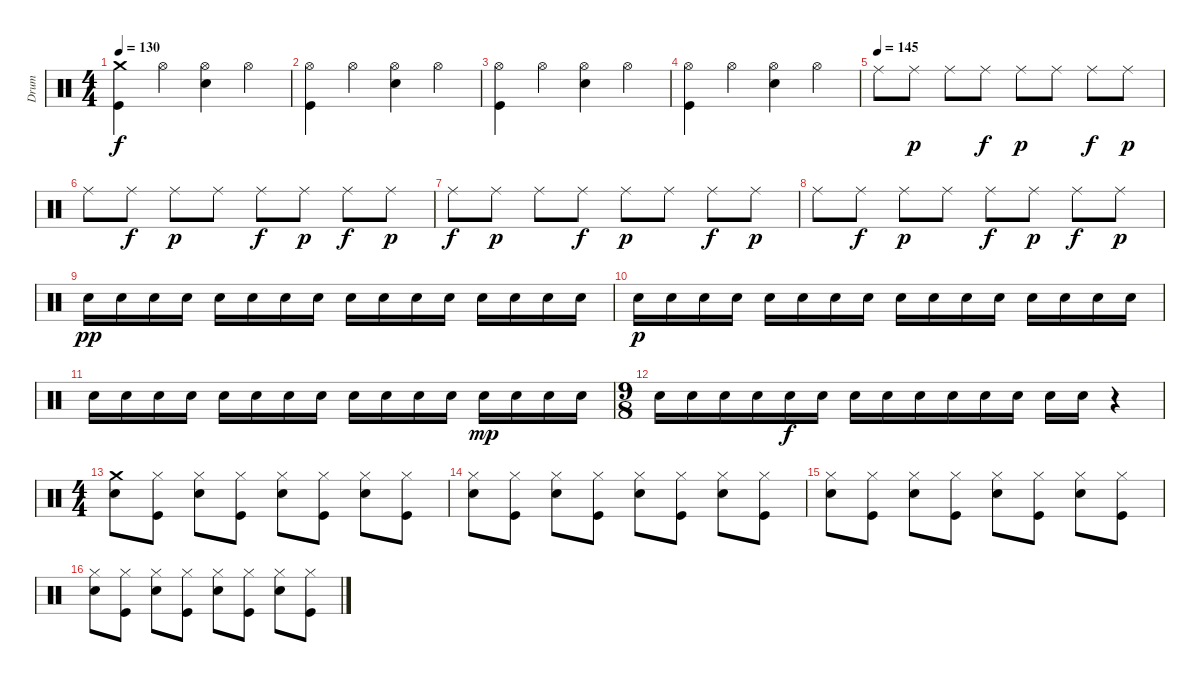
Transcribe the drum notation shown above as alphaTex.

\track ("Drum" "Drum") {instrument percussion}
\staff {score}
\articulation defaults
\ts (4 4)
\tempo 130
\clef neutral
\ks c
("Kick (hit)" "Crash medium (hit)").4{dy f} "Hi-Hat (open)".4 ("Electric Snare (hit)" "Hi-Hat (open)").4 "Hi-Hat (open)".4 |
("Kick (hit)" "Hi-Hat (open)").4 "Hi-Hat (open)".4 ("Electric Snare (hit)" "Hi-Hat (open)").4 "Hi-Hat (open)".4 |
("Kick (hit)" "Hi-Hat (open)").4 "Hi-Hat (open)".4 ("Electric Snare (hit)" "Hi-Hat (open)").4 "Hi-Hat (open)".4 |
("Kick (hit)" "Hi-Hat (open)").4 "Hi-Hat (open)".4 ("Electric Snare (hit)" "Hi-Hat (open)").4 "Hi-Hat (open)".4 |
\tempo (145)
"Ride (middle)".8 "Ride (middle)".8{dy p} "Ride (middle)".8 "Ride (middle)".8{dy f} "Ride (middle)".8{dy p} "Ride (middle)".8 "Ride (middle)".8{dy f} "Ride (middle)".8{dy p} |
"Ride (middle)".8 "Ride (middle)".8{dy f} "Ride (middle)".8{dy p} "Ride (middle)".8 "Ride (middle)".8{dy f} "Ride (middle)".8{dy p} "Ride (middle)".8{dy f} "Ride (middle)".8{dy p} |
"Ride (middle)".8{dy f} "Ride (middle)".8{dy p} "Ride (middle)".8 "Ride (middle)".8{dy f} "Ride (middle)".8{dy p} "Ride (middle)".8 "Ride (middle)".8{dy f} "Ride (middle)".8{dy p} |
"Ride (middle)".8 "Ride (middle)".8{dy f} "Ride (middle)".8{dy p} "Ride (middle)".8 "Ride (middle)".8{dy f} "Ride (middle)".8{dy p} "Ride (middle)".8{dy f} "Ride (middle)".8{dy p} |
"Electric Snare (hit)".16{dy pp} "Electric Snare (hit)".16 "Electric Snare (hit)".16 "Electric Snare (hit)".16 "Electric Snare (hit)".16 "Electric Snare (hit)".16 "Electric Snare (hit)".16 "Electric Snare (hit)".16 "Electric Snare (hit)".16 "Electric Snare (hit)".16 "Electric Snare (hit)".16 "Electric Snare (hit)".16 "Electric Snare (hit)".16 "Electric Snare (hit)".16 "Electric Snare (hit)".16 "Electric Snare (hit)".16 |
"Electric Snare (hit)".16{dy p} "Electric Snare (hit)".16 "Electric Snare (hit)".16 "Electric Snare (hit)".16 "Electric Snare (hit)".16 "Electric Snare (hit)".16 "Electric Snare (hit)".16 "Electric Snare (hit)".16 "Electric Snare (hit)".16 "Electric Snare (hit)".16 "Electric Snare (hit)".16 "Electric Snare (hit)".16 "Electric Snare (hit)".16 "Electric Snare (hit)".16 "Electric Snare (hit)".16 "Electric Snare (hit)".16 |
"Electric Snare (hit)".16 "Electric Snare (hit)".16 "Electric Snare (hit)".16 "Electric Snare (hit)".16 "Electric Snare (hit)".16 "Electric Snare (hit)".16 "Electric Snare (hit)".16 "Electric Snare (hit)".16 "Electric Snare (hit)".16 "Electric Snare (hit)".16 "Electric Snare (hit)".16 "Electric Snare (hit)".16 "Electric Snare (hit)".16{dy mp} "Electric Snare (hit)".16 "Electric Snare (hit)".16 "Electric Snare (hit)".16 |
\ts (9 8)
"Electric Snare (hit)".16 "Electric Snare (hit)".16 "Electric Snare (hit)".16 "Electric Snare (hit)".16 "Electric Snare (hit)".16{dy f} "Electric Snare (hit)".16 "Electric Snare (hit)".16 "Electric Snare (hit)".16 "Electric Snare (hit)".16 "Electric Snare (hit)".16 "Electric Snare (hit)".16 "Electric Snare (hit)".16 "Electric Snare (hit)".16 "Electric Snare (hit)".16 r.4 |
\ts (4 4)
("Electric Snare (hit)" "Crash medium (hit)").8 ("Kick (hit)" "Hi-Hat (closed)").8 ("Electric Snare (hit)" "Hi-Hat (closed)").8 ("Kick (hit)" "Hi-Hat (closed)").8 ("Electric Snare (hit)" "Hi-Hat (closed)").8 ("Kick (hit)" "Hi-Hat (closed)").8 ("Electric Snare (hit)" "Hi-Hat (closed)").8 ("Kick (hit)" "Hi-Hat (closed)").8 |
("Electric Snare (hit)" "Hi-Hat (closed)").8 ("Kick (hit)" "Hi-Hat (closed)").8 ("Electric Snare (hit)" "Hi-Hat (closed)").8 ("Kick (hit)" "Hi-Hat (closed)").8 ("Electric Snare (hit)" "Hi-Hat (closed)").8 ("Kick (hit)" "Hi-Hat (closed)").8 ("Electric Snare (hit)" "Hi-Hat (closed)").8 ("Kick (hit)" "Hi-Hat (closed)").8 |
("Electric Snare (hit)" "Hi-Hat (closed)").8 ("Kick (hit)" "Hi-Hat (closed)").8 ("Electric Snare (hit)" "Hi-Hat (closed)").8 ("Kick (hit)" "Hi-Hat (closed)").8 ("Electric Snare (hit)" "Hi-Hat (closed)").8 ("Kick (hit)" "Hi-Hat (closed)").8 ("Electric Snare (hit)" "Hi-Hat (closed)").8 ("Kick (hit)" "Hi-Hat (closed)").8 |
("Electric Snare (hit)" "Hi-Hat (closed)").8 ("Kick (hit)" "Hi-Hat (closed)").8 ("Electric Snare (hit)" "Hi-Hat (closed)").8 ("Kick (hit)" "Hi-Hat (closed)").8 ("Electric Snare (hit)" "Hi-Hat (closed)").8 ("Kick (hit)" "Hi-Hat (closed)").8 ("Electric Snare (hit)" "Hi-Hat (closed)").8 ("Kick (hit)" "Hi-Hat (closed)").8
